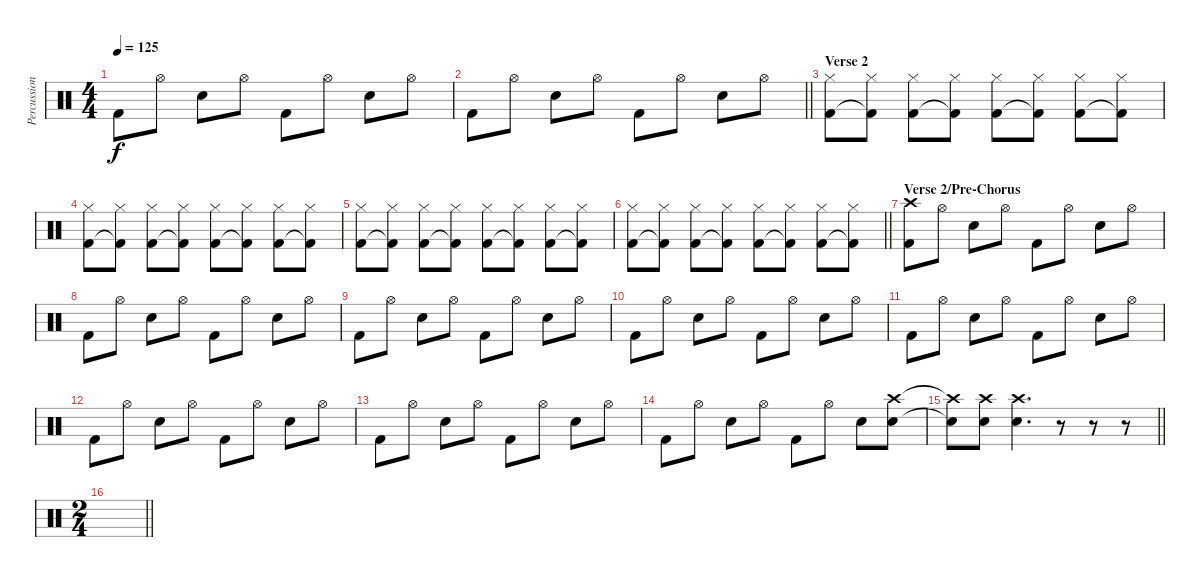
\track ("Percussion" "Percussion") {instrument percussion}
\staff {score}
\articulation defaults
\ts (4 4)
\tempo 125
\clef neutral
\ks c "Kick (hit) 2".8{dy f} "Hi-Hat (open)".8 "Snare (hit) 2".8 "Hi-Hat (open)".8 "Kick (hit) 2".8 "Hi-Hat (open)".8 "Snare (hit) 2".8 "Hi-Hat (open)".8
|
\barLineRight lightlight "Kick (hit) 2".8 "Hi-Hat (open)".8 "Snare (hit) 2".8 "Hi-Hat (open)".8 "Kick (hit) 2".8 "Hi-Hat (open)".8 "Snare (hit) 2".8 "Hi-Hat (open)".8
|
\section ("" "Verse 2")
("Hi-Hat (closed)" "Kick (hit) 2").8 ("Hi-Hat (closed)" "Kick (hit) 2"{t}).8 ("Hi-Hat (closed)" "Kick (hit) 2").8 ("Hi-Hat (closed)" "Kick (hit) 2"{t}).8 ("Hi-Hat (closed)" "Kick (hit) 2").8 ("Hi-Hat (closed)" "Kick (hit) 2"{t}).8 ("Hi-Hat (closed)" "Kick (hit) 2").8 ("Hi-Hat (closed)" "Kick (hit) 2"{t}).8 |
("Hi-Hat (closed)" "Kick (hit) 2").8 ("Hi-Hat (closed)" "Kick (hit) 2"{t}).8 ("Hi-Hat (closed)" "Kick (hit) 2").8 ("Hi-Hat (closed)" "Kick (hit) 2"{t}).8 ("Hi-Hat (closed)" "Kick (hit) 2").8 ("Hi-Hat (closed)" "Kick (hit) 2"{t}).8 ("Hi-Hat (closed)" "Kick (hit) 2").8 ("Hi-Hat (closed)" "Kick (hit) 2"{t}).8 |
("Hi-Hat (closed)" "Kick (hit) 2").8 ("Hi-Hat (closed)" "Kick (hit) 2"{t}).8 ("Hi-Hat (closed)" "Kick (hit) 2").8 ("Hi-Hat (closed)" "Kick (hit) 2"{t}).8 ("Hi-Hat (closed)" "Kick (hit) 2").8 ("Hi-Hat (closed)" "Kick (hit) 2"{t}).8 ("Hi-Hat (closed)" "Kick (hit) 2").8 ("Hi-Hat (closed)" "Kick (hit) 2"{t}).8 |
\barLineRight lightlight
("Hi-Hat (closed)" "Kick (hit) 2").8 ("Hi-Hat (closed)" "Kick (hit) 2"{t}).8 ("Hi-Hat (closed)" "Kick (hit) 2").8 ("Hi-Hat (closed)" "Kick (hit) 2"{t}).8 ("Hi-Hat (closed)" "Kick (hit) 2").8 ("Hi-Hat (closed)" "Kick (hit) 2"{t}).8 ("Hi-Hat (closed)" "Kick (hit) 2").8 ("Hi-Hat (closed)" "Kick (hit) 2"{t}).8 |
\section ("" "Verse 2/Pre-Chorus")
("Crash high (hit)" "Kick (hit) 2").8 "Hi-Hat (open)".8 "Snare (hit) 2".8 "Hi-Hat (open)".8 "Kick (hit) 2".8 "Hi-Hat (open)".8 "Snare (hit) 2".8 "Hi-Hat (open)".8 |
"Kick (hit) 2".8 "Hi-Hat (open)".8 "Snare (hit) 2".8 "Hi-Hat (open)".8 "Kick (hit) 2".8 "Hi-Hat (open)".8 "Snare (hit) 2".8 "Hi-Hat (open)".8 |
"Kick (hit) 2".8 "Hi-Hat (open)".8 "Snare (hit) 2".8 "Hi-Hat (open)".8 "Kick (hit) 2".8 "Hi-Hat (open)".8 "Snare (hit) 2".8 "Hi-Hat (open)".8 |
"Kick (hit) 2".8 "Hi-Hat (open)".8 "Snare (hit) 2".8 "Hi-Hat (open)".8 "Kick (hit) 2".8 "Hi-Hat (open)".8 "Snare (hit) 2".8 "Hi-Hat (open)".8 |
"Kick (hit) 2".8 "Hi-Hat (open)".8 "Snare (hit) 2".8 "Hi-Hat (open)".8 "Kick (hit) 2".8 "Hi-Hat (open)".8 "Snare (hit) 2".8 "Hi-Hat (open)".8 |
"Kick (hit) 2".8 "Hi-Hat (open)".8 "Snare (hit) 2".8 "Hi-Hat (open)".8 "Kick (hit) 2".8 "Hi-Hat (open)".8 "Snare (hit) 2".8 "Hi-Hat (open)".8 |
"Kick (hit) 2".8 "Hi-Hat (open)".8 "Snare (hit) 2".8 "Hi-Hat (open)".8 "Kick (hit) 2".8 "Hi-Hat (open)".8 "Snare (hit) 2".8 "Hi-Hat (open)".8 |
"Kick (hit) 2".8 "Hi-Hat (open)".8 "Snare (hit) 2".8 "Hi-Hat (open)".8 "Kick (hit) 2".8 "Hi-Hat (open)".8 "Snare (hit) 2".8 ("Crash high (hit)" "Snare (hit) 2").8 |
\barLineRight lightlight
("Crash high (hit)"{t} "Snare (hit) 2"{t}).8 ("Crash high (hit)" "Snare (hit) 2").8 ("Crash high (hit)" "Snare (hit) 2").4{d} r.8 r.8 r.8 |
\ts (2 4)
\barLineRight lightlight
